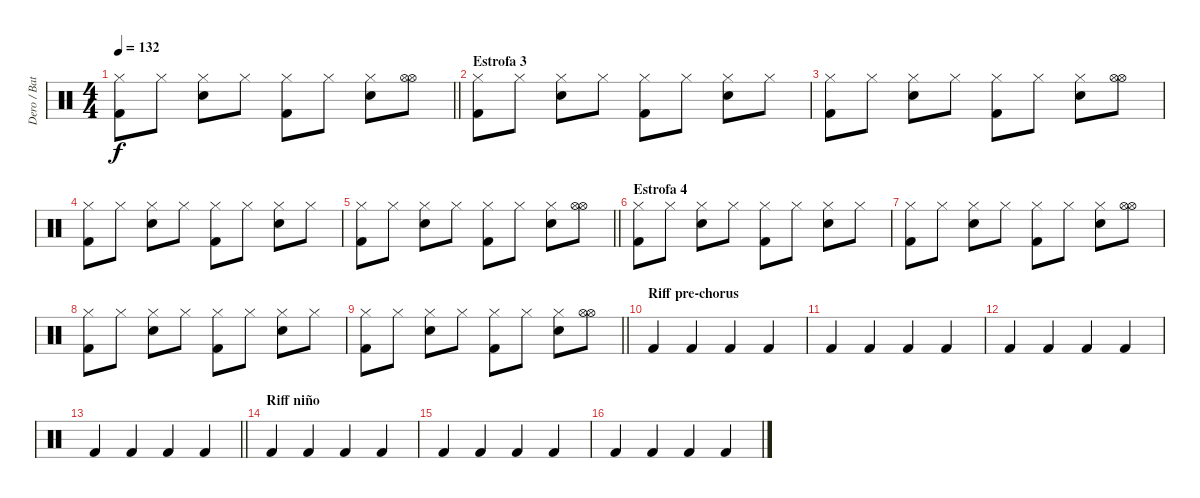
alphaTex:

\track ("Dero / Bateria" "Dero / Bat") {instrument percussion}
\staff {score}
\articulation defaults
\ts (4 4)
\tempo 132
\clef neutral
\barLineRight lightlight
\ks c
("Hi-Hat (closed)" "Kick (hit) 2").8{dy f} "Hi-Hat (closed)".8 ("Hi-Hat (closed)" "Electric Snare (hit)").8 "Hi-Hat (closed)".8 ("Hi-Hat (closed)" "Kick (hit) 2").8 "Hi-Hat (closed)".8 ("Hi-Hat (closed)" "Electric Snare (hit)").8 ("Hi-Hat (open)" "Hi-Hat (open)").8 |
\section ("" "Estrofa 3")
("Hi-Hat (closed)" "Kick (hit) 2").8 "Hi-Hat (closed)".8 ("Hi-Hat (closed)" "Electric Snare (hit)").8 "Hi-Hat (closed)".8 ("Hi-Hat (closed)" "Kick (hit) 2").8 "Hi-Hat (closed)".8 ("Hi-Hat (closed)" "Electric Snare (hit)").8 "Hi-Hat (closed)".8 |
("Hi-Hat (closed)" "Kick (hit) 2").8 "Hi-Hat (closed)".8 ("Hi-Hat (closed)" "Electric Snare (hit)").8 "Hi-Hat (closed)".8 ("Hi-Hat (closed)" "Kick (hit) 2").8 "Hi-Hat (closed)".8 ("Hi-Hat (closed)" "Electric Snare (hit)").8 ("Hi-Hat (open)" "Hi-Hat (open)").8 |
("Hi-Hat (closed)" "Kick (hit) 2").8 "Hi-Hat (closed)".8 ("Hi-Hat (closed)" "Electric Snare (hit)").8 "Hi-Hat (closed)".8 ("Hi-Hat (closed)" "Kick (hit) 2").8 "Hi-Hat (closed)".8 ("Hi-Hat (closed)" "Electric Snare (hit)").8 "Hi-Hat (closed)".8 |
\barLineRight lightlight
("Hi-Hat (closed)" "Kick (hit) 2").8 "Hi-Hat (closed)".8 ("Hi-Hat (closed)" "Electric Snare (hit)").8 "Hi-Hat (closed)".8 ("Hi-Hat (closed)" "Kick (hit) 2").8 "Hi-Hat (closed)".8 ("Hi-Hat (closed)" "Electric Snare (hit)").8 ("Hi-Hat (open)" "Hi-Hat (open)").8 |
\section ("" "Estrofa 4")
("Hi-Hat (closed)" "Kick (hit) 2").8 "Hi-Hat (closed)".8 ("Hi-Hat (closed)" "Electric Snare (hit)").8 "Hi-Hat (closed)".8 ("Hi-Hat (closed)" "Kick (hit) 2").8 "Hi-Hat (closed)".8 ("Hi-Hat (closed)" "Electric Snare (hit)").8 "Hi-Hat (closed)".8 |
("Hi-Hat (closed)" "Kick (hit) 2").8 "Hi-Hat (closed)".8 ("Hi-Hat (closed)" "Electric Snare (hit)").8 "Hi-Hat (closed)".8 ("Hi-Hat (closed)" "Kick (hit) 2").8 "Hi-Hat (closed)".8 ("Hi-Hat (closed)" "Electric Snare (hit)").8 ("Hi-Hat (open)" "Hi-Hat (open)").8 |
("Hi-Hat (closed)" "Kick (hit) 2").8 "Hi-Hat (closed)".8 ("Hi-Hat (closed)" "Electric Snare (hit)").8 "Hi-Hat (closed)".8 ("Hi-Hat (closed)" "Kick (hit) 2").8 "Hi-Hat (closed)".8 ("Hi-Hat (closed)" "Electric Snare (hit)").8 "Hi-Hat (closed)".8 |
\barLineRight lightlight
("Hi-Hat (closed)" "Kick (hit) 2").8 "Hi-Hat (closed)".8 ("Hi-Hat (closed)" "Electric Snare (hit)").8 "Hi-Hat (closed)".8 ("Hi-Hat (closed)" "Kick (hit) 2").8 "Hi-Hat (closed)".8 ("Hi-Hat (closed)" "Electric Snare (hit)").8 ("Hi-Hat (open)" "Hi-Hat (open)").8 |
\section ("" "Riff pre-chorus")
"Kick (hit) 2".4 "Kick (hit) 2".4 "Kick (hit) 2".4 "Kick (hit) 2".4 |
"Kick (hit) 2".4 "Kick (hit) 2".4 "Kick (hit) 2".4 "Kick (hit) 2".4 |
"Kick (hit) 2".4 "Kick (hit) 2".4 "Kick (hit) 2".4 "Kick (hit) 2".4 |
\barLineRight lightlight "Kick (hit) 2".4 "Kick (hit) 2".4 "Kick (hit) 2".4 "Kick (hit) 2".4
|
\section ("" "Riff niño")
"Kick (hit) 2".4 "Kick (hit) 2".4 "Kick (hit) 2".4 "Kick (hit) 2".4 |
"Kick (hit) 2".4 "Kick (hit) 2".4 "Kick (hit) 2".4 "Kick (hit) 2".4 |
"Kick (hit) 2".4 "Kick (hit) 2".4 "Kick (hit) 2".4 "Kick (hit) 2".4
